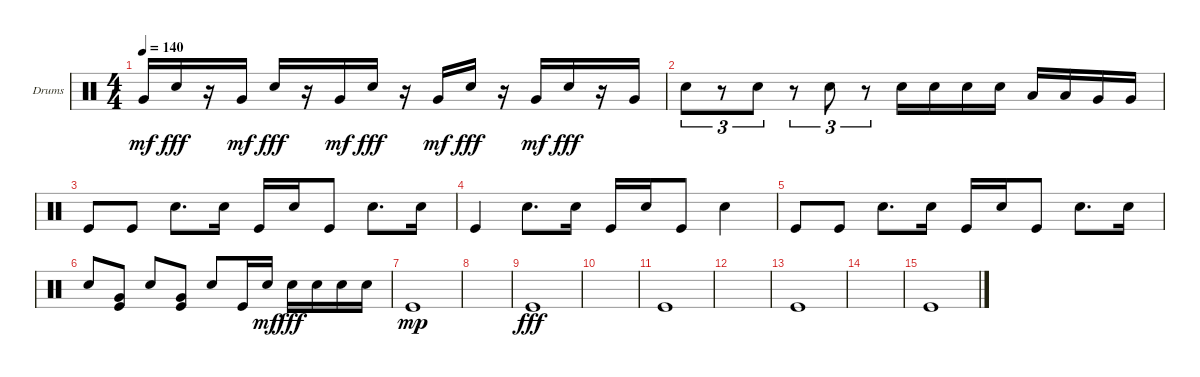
\defaultSystemsLayout 4
\bracketExtendMode groupsimilarinstruments
\firstSystemTrackNameOrientation horizontal
\otherSystemsTrackNameOrientation horizontal
\track ("Helders" "Drums") {instrument percussion}
\staff {score}
\articulation defaults
\ts (4 4)
\tempo 140
\clef neutral
\ks c "Very Low Tom (hit)".16{dy mf} "Snare (hit) 2".16{dy fff}
r.16 "Very Low Tom (hit)".16{dy mf} "Snare (hit) 2".16{dy fff} r.16 "Very Low Tom (hit)".16{dy mf} "Snare (hit) 2".16{dy fff} r.16 "Very Low Tom (hit)".16{dy mf} "Snare (hit) 2".16{dy fff} r.16 "Very Low Tom (hit)".16{dy mf} "Snare (hit) 2".16{dy fff} r.16 "Very Low Tom (hit)".16 |
"Snare (hit) 2".8{tu (3 2)} r.8{tu (3 2)} "Snare (hit) 2".8{tu (3 2)} r.8{tu (3 2)} "Snare (hit) 2".8{tu (3 2)} r.8{tu (3 2)} "Snare (hit) 2".16 "Snare (hit) 2".16 "Snare (hit) 2".16 "Snare (hit) 2".16 "Low Tom (hit)".16 "Low Tom (hit)".16 "Very Low Tom (hit)".16 "Very Low Tom (hit)".16 |
"Kick (hit)".8 "Kick (hit)".8 "Snare (hit) 2".8{d} "Snare (hit) 2".16 "Kick (hit)".16 "Snare (hit) 2".16 "Kick (hit)".8 "Snare (hit) 2".8{d} "Snare (hit) 2".16 |
"Kick (hit)".4 "Snare (hit) 2".8{d} "Snare (hit) 2".16 "Kick (hit)".16 "Snare (hit) 2".16 "Kick (hit)".8 "Snare (hit) 2".4 |
"Kick (hit)".8 "Kick (hit)".8 "Snare (hit) 2".8{d} "Snare (hit) 2".16 "Kick (hit)".16 "Snare (hit) 2".16 "Kick (hit)".8 "Snare (hit) 2".8{d} "Snare (hit) 2".16 |
"Snare (hit) 2".8 ("Kick (hit)" "Very Low Tom (hit)").8 "Snare (hit) 2".8 ("Very Low Tom (hit)" "Kick (hit)").8 "Snare (hit) 2".8 "Kick (hit)".16 "Snare (hit) 2".16{dy mf} "Snare (hit) 2".16{dy fff} "Snare (hit) 2".16 "Snare (hit) 2".16 "Snare (hit) 2".16 |
"Kick (hit)".1{dy mp} |
|
"Kick (hit)".1{dy fff} |
|
"Kick (hit)".1 |
|
"Kick (hit)".1 |
|
"Kick (hit)".1
